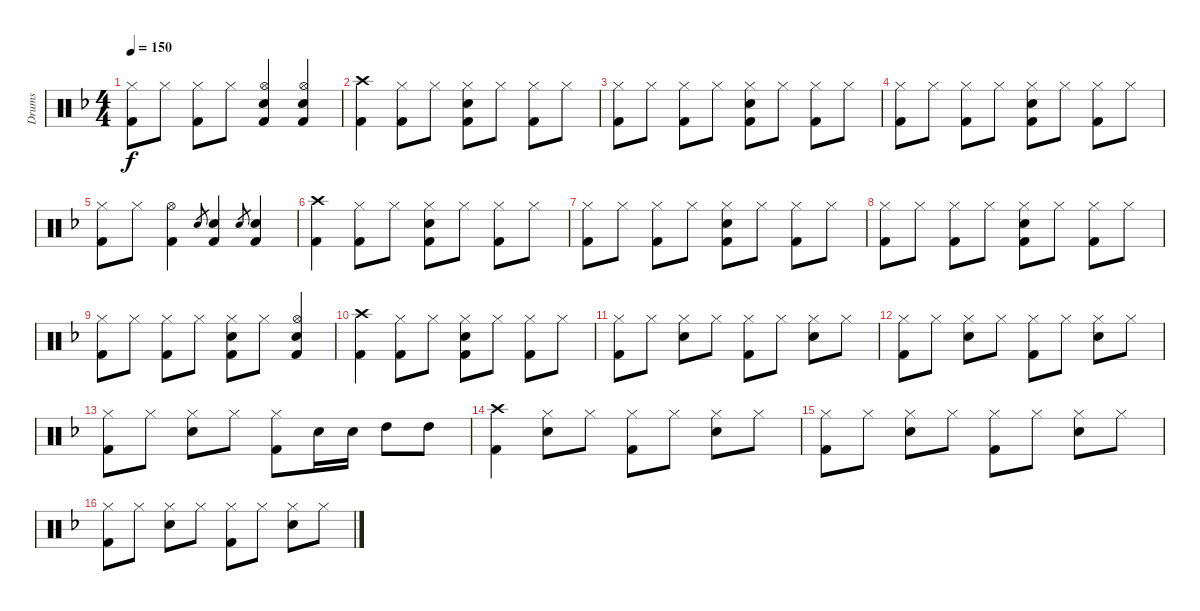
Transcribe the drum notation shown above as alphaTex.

\track ("Drums" "Drums") {instrument percussion}
\staff {score}
\articulation defaults
\ts (4 4)
\tempo 150
\clef neutral
\ks f
("Hi-Hat (closed)" "Kick (hit) 2").8{dy f} "Hi-Hat (closed)".8 ("Hi-Hat (closed)" "Kick (hit) 2").8 "Hi-Hat (closed)".8 ("Hi-Hat (open)" "Electric Snare (hit)" "Kick (hit) 2").4 ("Hi-Hat (open)" "Electric Snare (hit)" "Kick (hit) 2").4 |
("Crash high (hit)" "Kick (hit) 2").4 ("Hi-Hat (closed)" "Kick (hit) 2").8 "Hi-Hat (closed)".8 ("Hi-Hat (closed)" "Electric Snare (hit)" "Kick (hit) 2").8 "Hi-Hat (closed)".8 ("Hi-Hat (closed)" "Kick (hit) 2").8 "Hi-Hat (closed)".8 |
("Hi-Hat (closed)" "Kick (hit) 2").8 "Hi-Hat (closed)".8 ("Hi-Hat (closed)" "Kick (hit) 2").8 "Hi-Hat (closed)".8 ("Hi-Hat (closed)" "Electric Snare (hit)" "Kick (hit) 2").8 "Hi-Hat (closed)".8 ("Hi-Hat (closed)" "Kick (hit) 2").8 "Hi-Hat (closed)".8 |
("Hi-Hat (closed)" "Kick (hit) 2").8 "Hi-Hat (closed)".8 ("Hi-Hat (closed)" "Kick (hit) 2").8 "Hi-Hat (closed)".8 ("Hi-Hat (closed)" "Electric Snare (hit)" "Kick (hit) 2").8 "Hi-Hat (closed)".8 ("Hi-Hat (closed)" "Kick (hit) 2").8 "Hi-Hat (closed)".8 |
("Hi-Hat (closed)" "Kick (hit) 2").8 "Hi-Hat (closed)".8 ("Hi-Hat (open)" "Kick (hit) 2").4 "Electric Snare (hit)".8{gr} ("Electric Snare (hit)" "Kick (hit) 2").4 "Electric Snare (hit)".8{gr} ("Electric Snare (hit)" "Kick (hit) 2").4 |
("Crash high (hit)" "Kick (hit) 2").4 ("Hi-Hat (closed)" "Kick (hit) 2").8 "Hi-Hat (closed)".8 ("Hi-Hat (closed)" "Electric Snare (hit)" "Kick (hit) 2").8 "Hi-Hat (closed)".8 ("Hi-Hat (closed)" "Kick (hit) 2").8 "Hi-Hat (closed)".8 |
("Hi-Hat (closed)" "Kick (hit) 2").8 "Hi-Hat (closed)".8 ("Hi-Hat (closed)" "Kick (hit) 2").8 "Hi-Hat (closed)".8 ("Hi-Hat (closed)" "Electric Snare (hit)" "Kick (hit) 2").8 "Hi-Hat (closed)".8 ("Hi-Hat (closed)" "Kick (hit) 2").8 "Hi-Hat (closed)".8 |
("Hi-Hat (closed)" "Kick (hit) 2").8 "Hi-Hat (closed)".8 ("Hi-Hat (closed)" "Kick (hit) 2").8 "Hi-Hat (closed)".8 ("Hi-Hat (closed)" "Electric Snare (hit)" "Kick (hit) 2").8 "Hi-Hat (closed)".8 ("Hi-Hat (closed)" "Kick (hit) 2").8 "Hi-Hat (closed)".8 |
("Hi-Hat (closed)" "Kick (hit) 2").8 "Hi-Hat (closed)".8 ("Hi-Hat (closed)" "Kick (hit) 2").8 "Hi-Hat (closed)".8 ("Hi-Hat (closed)" "Electric Snare (hit)" "Kick (hit) 2").8 "Hi-Hat (closed)".8 ("Hi-Hat (open)" "Electric Snare (hit)" "Kick (hit) 2").4 |
("Crash high (hit)" "Kick (hit) 2").4 ("Hi-Hat (closed)" "Kick (hit) 2").8 "Hi-Hat (closed)".8 ("Hi-Hat (closed)" "Electric Snare (hit)" "Kick (hit) 2").8 "Hi-Hat (closed)".8 ("Hi-Hat (closed)" "Kick (hit) 2").8 "Hi-Hat (closed)".8 |
("Hi-Hat (closed)" "Kick (hit) 2").8 "Hi-Hat (closed)".8 ("Hi-Hat (closed)" "Electric Snare (hit)").8 "Hi-Hat (closed)".8 ("Hi-Hat (closed)" "Kick (hit) 2").8 "Hi-Hat (closed)".8 ("Hi-Hat (closed)" "Electric Snare (hit)").8 "Hi-Hat (closed)".8 |
("Hi-Hat (closed)" "Kick (hit) 2").8 "Hi-Hat (closed)".8 ("Hi-Hat (closed)" "Electric Snare (hit)").8 "Hi-Hat (closed)".8 ("Hi-Hat (closed)" "Kick (hit) 2").8 "Hi-Hat (closed)".8 ("Hi-Hat (closed)" "Electric Snare (hit)").8 "Hi-Hat (closed)".8 |
("Hi-Hat (closed)" "Kick (hit) 2").8 "Hi-Hat (closed)".8 ("Hi-Hat (closed)" "Electric Snare (hit)").8 "Hi-Hat (closed)".8 ("Hi-Hat (closed)" "Kick (hit) 2").8 "Electric Snare (hit)".16 "Electric Snare (hit)".16 "High Tom (hit)".8 "High Tom (hit)".8 |
("Crash high (hit)" "Kick (hit) 2").4 ("Hi-Hat (closed)" "Electric Snare (hit)").8 "Hi-Hat (closed)".8 ("Hi-Hat (closed)" "Kick (hit) 2").8 "Hi-Hat (closed)".8 ("Hi-Hat (closed)" "Electric Snare (hit)").8 "Hi-Hat (closed)".8 |
("Hi-Hat (closed)" "Kick (hit) 2").8 "Hi-Hat (closed)".8 ("Hi-Hat (closed)" "Electric Snare (hit)").8 "Hi-Hat (closed)".8 ("Hi-Hat (closed)" "Kick (hit) 2").8 "Hi-Hat (closed)".8 ("Hi-Hat (closed)" "Electric Snare (hit)").8 "Hi-Hat (closed)".8 |
("Hi-Hat (closed)" "Kick (hit) 2").8 "Hi-Hat (closed)".8 ("Hi-Hat (closed)" "Electric Snare (hit)").8 "Hi-Hat (closed)".8 ("Hi-Hat (closed)" "Kick (hit) 2").8 "Hi-Hat (closed)".8 ("Hi-Hat (closed)" "Electric Snare (hit)").8 "Hi-Hat (closed)".8
